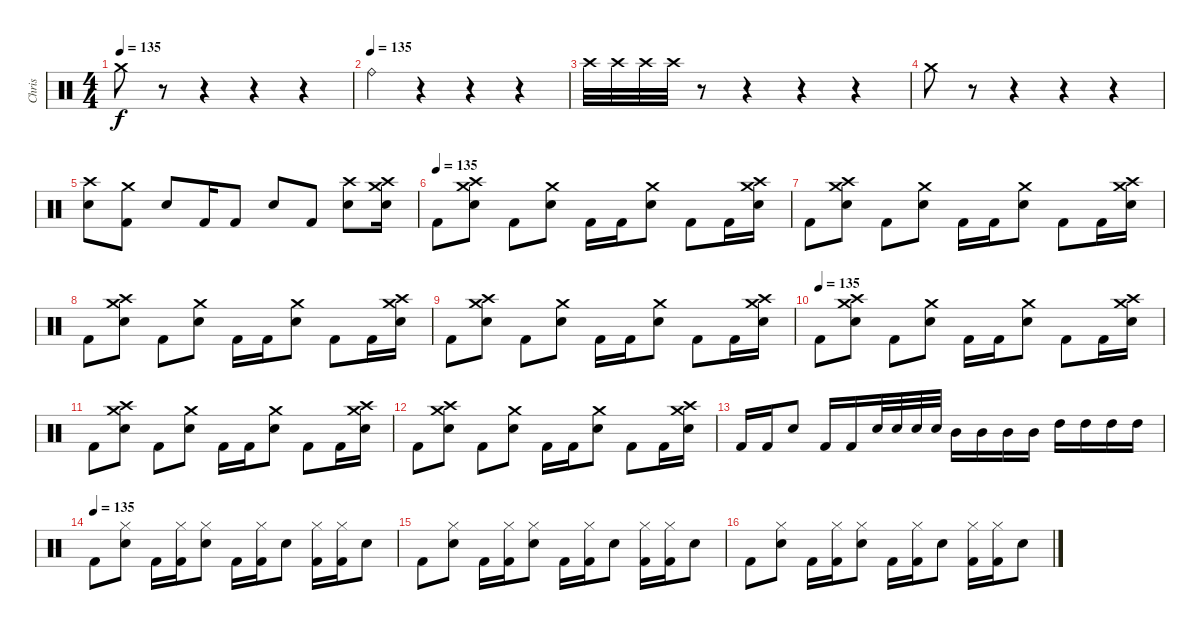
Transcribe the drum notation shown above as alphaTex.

\track ("Chris" "Chris") {instrument percussion}
\staff {score}
\articulation defaults
\ts (4 4)
\tempo 135
\clef neutral
\ks c "Crash medium (hit)".8{dy f}
r.8 r.4 r.4 r.4 |
\tempo (135)
"Ride (bell)".4 r.4 r.4 r.4 |
"Crash high (hit)".32 "Crash high (hit)".32 "Crash high (hit)".32 "Crash high (hit)".32 r.8 r.4 r.4 r.4 |
"Crash medium (hit)".8 r.8 r.4 r.4 r.4 |
("Crash high (hit)" "Snare (hit) 2").8 ("Crash medium (hit)" "Kick (hit) 2").8 "Snare (hit) 2".8 "Kick (hit) 2".16 "Kick (hit) 2".8 "Snare (hit) 2".8 "Kick (hit) 2".8 ("Crash high (hit)" "Snare (hit) 2").8 ("Crash medium (hit)" "Snare (hit) 2" "Crash high (hit)").16 |
\tempo (135)
"Kick (hit) 2".8 ("Snare (hit) 2" "Crash medium (hit)" "Crash high (hit)").8 "Kick (hit) 2".8 ("Snare (hit) 2" "Crash medium (hit)").8 "Kick (hit) 2".16 "Kick (hit) 2".16 ("Snare (hit) 2" "Crash medium (hit)").8 "Kick (hit) 2".8 "Kick (hit) 2".16 ("Snare (hit) 2" "Crash high (hit)" "Crash medium (hit)").16 |
"Kick (hit) 2".8 ("Snare (hit) 2" "Crash medium (hit)" "Crash high (hit)").8 "Kick (hit) 2".8 ("Snare (hit) 2" "Crash medium (hit)").8 "Kick (hit) 2".16 "Kick (hit) 2".16 ("Snare (hit) 2" "Crash medium (hit)").8 "Kick (hit) 2".8 "Kick (hit) 2".16 ("Snare (hit) 2" "Crash high (hit)" "Crash medium (hit)").16 |
"Kick (hit) 2".8 ("Snare (hit) 2" "Crash medium (hit)" "Crash high (hit)").8 "Kick (hit) 2".8 ("Snare (hit) 2" "Crash medium (hit)").8 "Kick (hit) 2".16 "Kick (hit) 2".16 ("Snare (hit) 2" "Crash medium (hit)").8 "Kick (hit) 2".8 "Kick (hit) 2".16 ("Snare (hit) 2" "Crash high (hit)" "Crash medium (hit)").16 |
"Kick (hit) 2".8 ("Snare (hit) 2" "Crash medium (hit)" "Crash high (hit)").8 "Kick (hit) 2".8 ("Snare (hit) 2" "Crash medium (hit)").8 "Kick (hit) 2".16 "Kick (hit) 2".16 ("Snare (hit) 2" "Crash medium (hit)").8 "Kick (hit) 2".8 "Kick (hit) 2".16 ("Snare (hit) 2" "Crash high (hit)" "Crash medium (hit)").16 |
\tempo (135)
"Kick (hit) 2".8 ("Snare (hit) 2" "Crash medium (hit)" "Crash high (hit)").8 "Kick (hit) 2".8 ("Snare (hit) 2" "Crash medium (hit)").8 "Kick (hit) 2".16 "Kick (hit) 2".16 ("Snare (hit) 2" "Crash medium (hit)").8 "Kick (hit) 2".8 "Kick (hit) 2".16 ("Snare (hit) 2" "Crash high (hit)" "Crash medium (hit)").16 |
"Kick (hit) 2".8 ("Snare (hit) 2" "Crash medium (hit)" "Crash high (hit)").8 "Kick (hit) 2".8 ("Snare (hit) 2" "Crash medium (hit)").8 "Kick (hit) 2".16 "Kick (hit) 2".16 ("Snare (hit) 2" "Crash medium (hit)").8 "Kick (hit) 2".8 "Kick (hit) 2".16 ("Snare (hit) 2" "Crash high (hit)" "Crash medium (hit)").16 |
"Kick (hit) 2".8 ("Snare (hit) 2" "Crash medium (hit)" "Crash high (hit)").8 "Kick (hit) 2".8 ("Snare (hit) 2" "Crash medium (hit)").8 "Kick (hit) 2".16 "Kick (hit) 2".16 ("Snare (hit) 2" "Crash medium (hit)").8 "Kick (hit) 2".8 "Kick (hit) 2".16 ("Snare (hit) 2" "Crash high (hit)" "Crash medium (hit)").16 |
"Kick (hit) 2".16 "Kick (hit) 2".16 "Snare (hit) 2".8 "Kick (hit) 2".16 "Kick (hit) 2".16 "Snare (hit) 2".32 "Snare (hit) 2".32 "Snare (hit) 2".32 "Snare (hit) 2".32 "Mid Tom (hit)".16 "Mid Tom (hit)".16 "Mid Tom (hit)".16 "Mid Tom (hit)".16 "High Tom (hit)".16 "High Tom (hit)".16 "High Tom (hit)".16 "High Tom (hit)".16 |
\tempo (135)
"Kick (hit) 2".8 ("Hi-Hat (closed)" "Snare (hit) 2").8 "Kick (hit) 2".16 ("Hi-Hat (closed)" "Kick (hit) 2").16 ("Hi-Hat (closed)" "Snare (hit) 2").8 "Kick (hit) 2".16 ("Hi-Hat (closed)" "Kick (hit) 2").16 "Snare (hit) 2".8 ("Hi-Hat (closed)" "Kick (hit) 2").16 ("Hi-Hat (closed)" "Kick (hit) 2").16 "Snare (hit) 2".8 |
"Kick (hit) 2".8 ("Hi-Hat (closed)" "Snare (hit) 2").8 "Kick (hit) 2".16 ("Hi-Hat (closed)" "Kick (hit) 2").16 ("Hi-Hat (closed)" "Snare (hit) 2").8 "Kick (hit) 2".16 ("Hi-Hat (closed)" "Kick (hit) 2").16 "Snare (hit) 2".8 ("Hi-Hat (closed)" "Kick (hit) 2").16 ("Hi-Hat (closed)" "Kick (hit) 2").16 "Snare (hit) 2".8 |
"Kick (hit) 2".8 ("Hi-Hat (closed)" "Snare (hit) 2").8 "Kick (hit) 2".16 ("Hi-Hat (closed)" "Kick (hit) 2").16 ("Hi-Hat (closed)" "Snare (hit) 2").8 "Kick (hit) 2".16 ("Hi-Hat (closed)" "Kick (hit) 2").16 "Snare (hit) 2".8 ("Hi-Hat (closed)" "Kick (hit) 2").16 ("Hi-Hat (closed)" "Kick (hit) 2").16 "Snare (hit) 2".8
